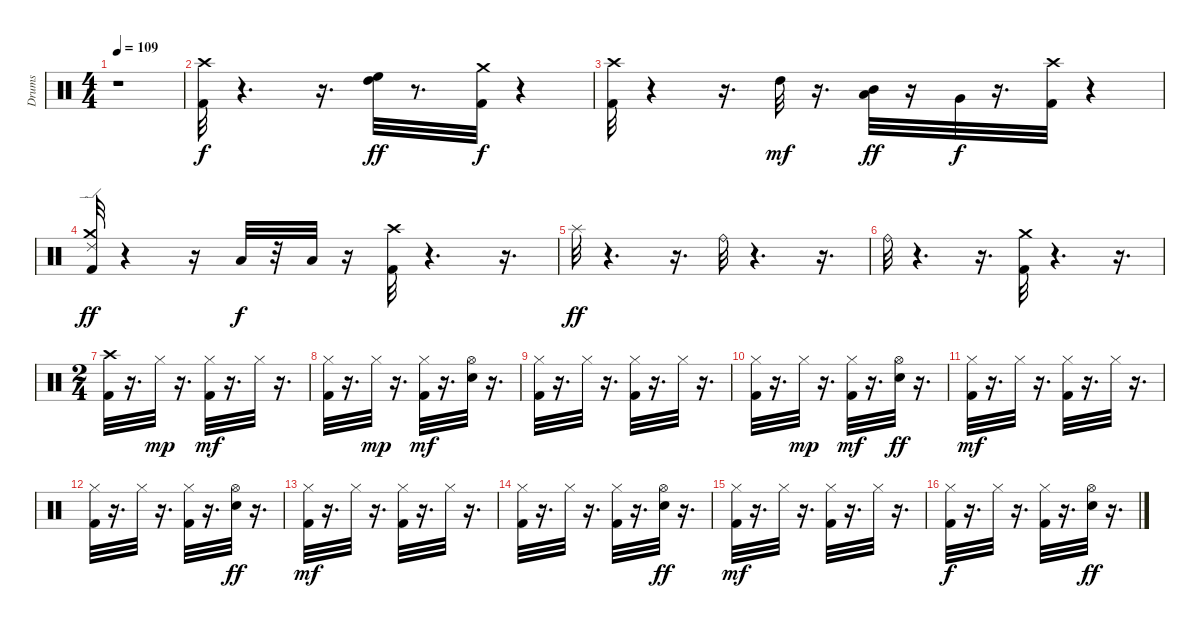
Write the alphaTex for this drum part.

\track ("Drums" "Drums") {solo instrument percussion}
\staff {score}
\articulation defaults
\ts (4 4)
\tempo 109
\clef neutral
\ks c
r.1{dy mf} |
("Kick (hit) 2" "Crash high (hit)").32{dy f} r.4{d} r.16{d} ("High Floor Tom (hit)" "High Tom (hit)").32{dy ff} r.8{d} ("Kick (hit) 2" "Crash medium (hit)").32{dy f} r.4 |
("Kick (hit) 2" "Crash high (hit)").32 r.4 r.16{d} "High Tom (hit)".32{dy mf} r.16{d} ("Mid Tom (hit)" "Low Tom (hit)").32{dy ff} r.16 "Very Low Tom (hit)".32{dy f} r.16{d} ("Kick (hit) 2" "Crash high (hit)").32 r.4 |
("Kick (hit) 2" "Crash medium (hit)" "Ride (edge) 2").32{dy ff} r.4 r.16 "Low Floor Tom (hit)".32{dy f} r.32 "Low Floor Tom (hit)".32 r.16 ("Kick (hit) 2" "Crash high (hit)").32 r.4{d} r.16{d} |
"Splash (hit)".32{dy ff} r.4{d} r.16{d} "Ride (bell)".32 r.4{d} r.16{d} |
"Ride (bell)".32 r.4{d} r.16{d} ("Kick (hit) 2" "Crash medium (hit)").32 r.4{d} r.16{d} |
\ts (2 4)
("Kick (hit) 2" "Crash high (hit)").32 r.16{d} "Hi-Hat (closed)".32{dy mp} r.16{d} ("Kick (hit) 2" "Hi-Hat (closed)").32{dy mf} r.16{d} "Hi-Hat (closed)".32 r.16{d} |
("Kick (hit) 2" "Hi-Hat (closed)").32 r.16{d} "Hi-Hat (closed)".32{dy mp} r.16{d} ("Kick (hit) 2" "Hi-Hat (closed)").32{dy mf} r.16{d} ("Hi-Hat (open)" "Electric Snare (hit)").32 r.16{d} |
("Kick (hit) 2" "Hi-Hat (closed)").32 r.16{d} "Hi-Hat (closed)".32 r.16{d} ("Kick (hit) 2" "Hi-Hat (closed)").32 r.16{d} "Hi-Hat (closed)".32 r.16{d} |
("Kick (hit) 2" "Hi-Hat (closed)").32 r.16{d} "Hi-Hat (closed)".32{dy mp} r.16{d} ("Kick (hit) 2" "Hi-Hat (closed)").32{dy mf} r.16{d} ("Electric Snare (hit)" "Hi-Hat (open)").32{dy ff} r.16{d} |
("Hi-Hat (closed)" "Kick (hit) 2").32{dy mf} r.16{d} "Hi-Hat (closed)".32 r.16{d} ("Kick (hit) 2" "Hi-Hat (closed)").32 r.16{d} "Hi-Hat (closed)".32 r.16{d} |
("Kick (hit) 2" "Hi-Hat (closed)").32 r.16{d} "Hi-Hat (closed)".32 r.16{d} ("Kick (hit) 2" "Hi-Hat (closed)").32 r.16{d} ("Electric Snare (hit)" "Hi-Hat (open)").32{dy ff} r.16{d} |
("Hi-Hat (closed)" "Kick (hit) 2").32{dy mf} r.16{d} "Hi-Hat (closed)".32 r.16{d} ("Kick (hit) 2" "Hi-Hat (closed)").32 r.16{d} "Hi-Hat (closed)".32 r.16{d} |
("Kick (hit) 2" "Hi-Hat (closed)").32 r.16{d} "Hi-Hat (closed)".32 r.16{d} ("Kick (hit) 2" "Hi-Hat (closed)").32 r.16{d} ("Electric Snare (hit)" "Hi-Hat (open)").32{dy ff} r.16{d} |
("Hi-Hat (closed)" "Kick (hit) 2").32{dy mf} r.16{d} "Hi-Hat (closed)".32 r.16{d} ("Kick (hit) 2" "Hi-Hat (closed)").32 r.16{d} "Hi-Hat (closed)".32 r.16{d} |
("Kick (hit) 2" "Hi-Hat (closed)").32{dy f} r.16{d} "Hi-Hat (closed)".32 r.16{d} ("Kick (hit) 2" "Hi-Hat (closed)").32 r.16{d} ("Electric Snare (hit)" "Hi-Hat (open)").32{dy ff} r.16{d}
